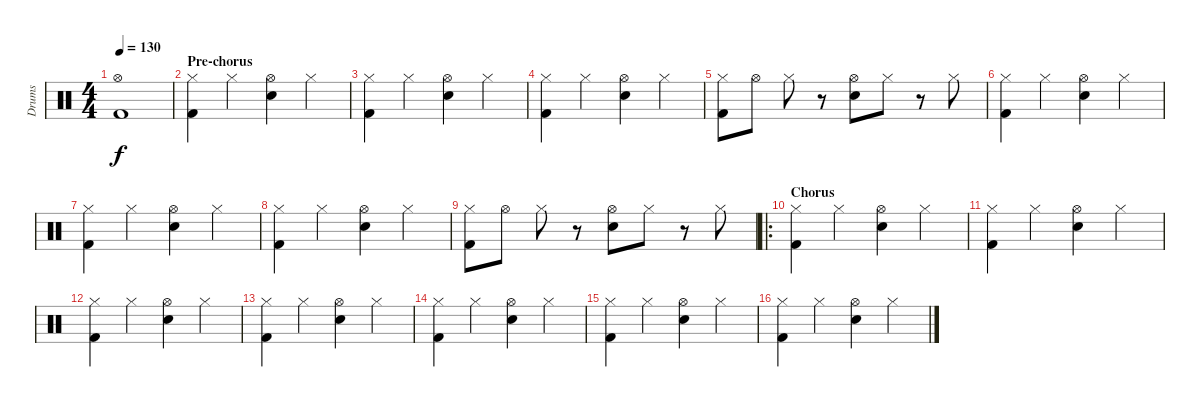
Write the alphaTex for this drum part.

\track ("Drums" "Drums") {instrument percussion}
\staff {score}
\articulation defaults
\ts (4 4)
\tempo 130
\clef neutral
\ks c
("Kick (hit) 2" "Hi-Hat (open)").1{dy f} |
\section ("" "Pre-chorus")
("Kick (hit) 2" "Hi-Hat (closed)").4 "Hi-Hat (closed)".4 ("Hi-Hat (open)" "Snare (hit) 2").4 "Hi-Hat (closed)".4 |
("Kick (hit) 2" "Hi-Hat (closed)").4 "Hi-Hat (closed)".4 ("Hi-Hat (open)" "Snare (hit) 2").4 "Hi-Hat (closed)".4 |
("Kick (hit) 2" "Hi-Hat (closed)").4 "Hi-Hat (closed)".4 ("Hi-Hat (open)" "Snare (hit) 2").4 "Hi-Hat (closed)".4 |
("Kick (hit) 2" "Hi-Hat (closed)").8 "Hi-Hat (open)".8 "Hi-Hat (closed)".8 r.8 ("Hi-Hat (open)" "Snare (hit) 2").8 "Hi-Hat (closed)".8 r.8 "Hi-Hat (closed)".8 |
("Kick (hit) 2" "Hi-Hat (closed)").4 "Hi-Hat (closed)".4 ("Hi-Hat (open)" "Snare (hit) 2").4 "Hi-Hat (closed)".4 |
("Kick (hit) 2" "Hi-Hat (closed)").4 "Hi-Hat (closed)".4 ("Hi-Hat (open)" "Snare (hit) 2").4 "Hi-Hat (closed)".4 |
("Kick (hit) 2" "Hi-Hat (closed)").4 "Hi-Hat (closed)".4 ("Hi-Hat (open)" "Snare (hit) 2").4 "Hi-Hat (closed)".4 |
("Kick (hit) 2" "Hi-Hat (closed)").8 "Hi-Hat (open)".8 "Hi-Hat (closed)".8 r.8 ("Hi-Hat (open)" "Snare (hit) 2").8 "Hi-Hat (closed)".8 r.8 "Hi-Hat (closed)".8 |
\ro
\section ("" "Chorus")
("Kick (hit) 2" "Hi-Hat (closed)").4 "Hi-Hat (closed)".4 ("Hi-Hat (open)" "Snare (hit) 2").4 "Hi-Hat (closed)".4 |
("Kick (hit) 2" "Hi-Hat (closed)").4 "Hi-Hat (closed)".4 ("Hi-Hat (open)" "Snare (hit) 2").4 "Hi-Hat (closed)".4 |
("Kick (hit) 2" "Hi-Hat (closed)").4 "Hi-Hat (closed)".4 ("Hi-Hat (open)" "Snare (hit) 2").4 "Hi-Hat (closed)".4 |
("Kick (hit) 2" "Hi-Hat (closed)").4 "Hi-Hat (closed)".4 ("Hi-Hat (open)" "Snare (hit) 2").4 "Hi-Hat (closed)".4 |
("Kick (hit) 2" "Hi-Hat (closed)").4 "Hi-Hat (closed)".4 ("Hi-Hat (open)" "Snare (hit) 2").4 "Hi-Hat (closed)".4 |
("Kick (hit) 2" "Hi-Hat (closed)").4 "Hi-Hat (closed)".4 ("Hi-Hat (open)" "Snare (hit) 2").4 "Hi-Hat (closed)".4 |
("Kick (hit) 2" "Hi-Hat (closed)").4 "Hi-Hat (closed)".4 ("Hi-Hat (open)" "Snare (hit) 2").4 "Hi-Hat (closed)".4
